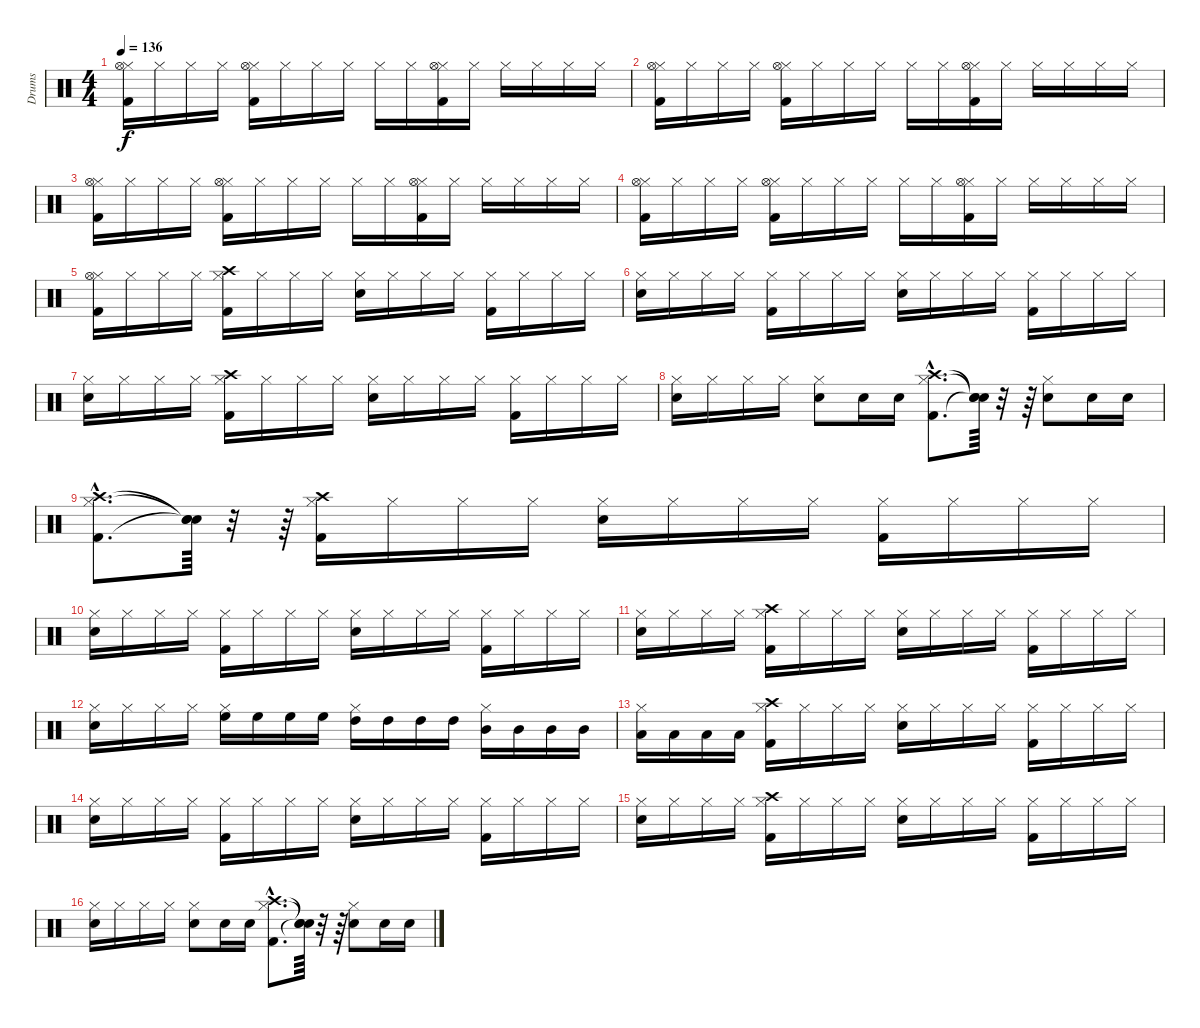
\track ("Drums" "Drums") {instrument percussion}
\staff {score}
\articulation defaults
\ts (4 4)
\tempo 136
\clef neutral
\ks c
("Kick (hit) 2" "Hi-Hat (closed)" "Hi-Hat (open)").16{dy f} "Hi-Hat (closed)".16 "Hi-Hat (closed)".16 "Hi-Hat (closed)".16 ("Kick (hit) 2" "Hi-Hat (closed)" "Hi-Hat (open)").16 "Hi-Hat (closed)".16 "Hi-Hat (closed)".16 "Hi-Hat (closed)".16 "Hi-Hat (closed)".16 "Hi-Hat (closed)".16 ("Kick (hit) 2" "Hi-Hat (closed)" "Hi-Hat (open)").16 "Hi-Hat (closed)".16 "Hi-Hat (closed)".16 "Hi-Hat (closed)".16 "Hi-Hat (closed)".16 "Hi-Hat (closed)".16 |
("Kick (hit) 2" "Hi-Hat (closed)" "Hi-Hat (open)").16 "Hi-Hat (closed)".16 "Hi-Hat (closed)".16 "Hi-Hat (closed)".16 ("Kick (hit) 2" "Hi-Hat (closed)" "Hi-Hat (open)").16 "Hi-Hat (closed)".16 "Hi-Hat (closed)".16 "Hi-Hat (closed)".16 "Hi-Hat (closed)".16 "Hi-Hat (closed)".16 ("Kick (hit) 2" "Hi-Hat (closed)" "Hi-Hat (open)").16 "Hi-Hat (closed)".16 "Hi-Hat (closed)".16 "Hi-Hat (closed)".16 "Hi-Hat (closed)".16 "Hi-Hat (closed)".16 |
("Kick (hit) 2" "Hi-Hat (closed)" "Hi-Hat (open)").16 "Hi-Hat (closed)".16 "Hi-Hat (closed)".16 "Hi-Hat (closed)".16 ("Kick (hit) 2" "Hi-Hat (closed)" "Hi-Hat (open)").16 "Hi-Hat (closed)".16 "Hi-Hat (closed)".16 "Hi-Hat (closed)".16 "Hi-Hat (closed)".16 "Hi-Hat (closed)".16 ("Kick (hit) 2" "Hi-Hat (closed)" "Hi-Hat (open)").16 "Hi-Hat (closed)".16 "Hi-Hat (closed)".16 "Hi-Hat (closed)".16 "Hi-Hat (closed)".16 "Hi-Hat (closed)".16 |
("Kick (hit) 2" "Hi-Hat (closed)" "Hi-Hat (open)").16 "Hi-Hat (closed)".16 "Hi-Hat (closed)".16 "Hi-Hat (closed)".16 ("Kick (hit) 2" "Hi-Hat (closed)" "Hi-Hat (open)").16 "Hi-Hat (closed)".16 "Hi-Hat (closed)".16 "Hi-Hat (closed)".16 "Hi-Hat (closed)".16 "Hi-Hat (closed)".16 ("Kick (hit) 2" "Hi-Hat (closed)" "Hi-Hat (open)").16 "Hi-Hat (closed)".16 "Hi-Hat (closed)".16 "Hi-Hat (closed)".16 "Hi-Hat (closed)".16 "Hi-Hat (closed)".16 |
("Kick (hit) 2" "Hi-Hat (closed)" "Hi-Hat (open)").16 "Hi-Hat (closed)".16 "Hi-Hat (closed)".16 "Hi-Hat (closed)".16 ("Kick (hit) 2" "Hi-Hat (closed)" "Crash high (hit)").16 "Hi-Hat (closed)".16 "Hi-Hat (closed)".16 "Hi-Hat (closed)".16 ("Snare (hit) 2" "Hi-Hat (closed)").16 "Hi-Hat (closed)".16 "Hi-Hat (closed)".16 "Hi-Hat (closed)".16 ("Kick (hit) 2" "Hi-Hat (closed)").16 "Hi-Hat (closed)".16 "Hi-Hat (closed)".16 "Hi-Hat (closed)".16 |
("Snare (hit) 2" "Hi-Hat (closed)").16 "Hi-Hat (closed)".16 "Hi-Hat (closed)".16 "Hi-Hat (closed)".16 ("Kick (hit) 2" "Hi-Hat (closed)").16 "Hi-Hat (closed)".16 "Hi-Hat (closed)".16 "Hi-Hat (closed)".16 ("Snare (hit) 2" "Hi-Hat (closed)").16 "Hi-Hat (closed)".16 "Hi-Hat (closed)".16 "Hi-Hat (closed)".16 ("Kick (hit) 2" "Hi-Hat (closed)").16 "Hi-Hat (closed)".16 "Hi-Hat (closed)".16 "Hi-Hat (closed)".16 |
("Snare (hit) 2" "Hi-Hat (closed)").16 "Hi-Hat (closed)".16 "Hi-Hat (closed)".16 "Hi-Hat (closed)".16 ("Kick (hit) 2" "Hi-Hat (closed)" "Crash high (hit)").16 "Hi-Hat (closed)".16 "Hi-Hat (closed)".16 "Hi-Hat (closed)".16 ("Snare (hit) 2" "Hi-Hat (closed)").16 "Hi-Hat (closed)".16 "Hi-Hat (closed)".16 "Hi-Hat (closed)".16 ("Kick (hit) 2" "Hi-Hat (closed)").16 "Hi-Hat (closed)".16 "Hi-Hat (closed)".16 "Hi-Hat (closed)".16 |
("Snare (hit) 2" "Hi-Hat (closed)").16 "Hi-Hat (closed)".16 "Hi-Hat (closed)".16 "Hi-Hat (closed)".16 ("Snare (hit) 2" "Hi-Hat (closed)").8 "Snare (hit) 2".16 "Snare (hit) 2".16 ("Kick (hit) 2"{hac} "Hi-Hat (closed)"{hac} "Crash high (hit)"{hac}).8{d} ("Snare (hit)"{t} "Snare (hit)"{t} "Snare (hit)"{t}).64 r.32 r.64 ("Snare (hit) 2" "Hi-Hat (closed)").8 "Snare (hit) 2".16 "Snare (hit) 2".16 |
("Kick (hit) 2"{hac} "Hi-Hat (closed)"{hac} "Crash high (hit)"{hac}).8{d} ("Snare (hit)"{t} "Snare (hit)"{t} "Snare (hit)"{t}).64 r.32 r.64 ("Kick (hit) 2" "Hi-Hat (closed)" "Crash high (hit)").16 "Hi-Hat (closed)".16 "Hi-Hat (closed)".16 "Hi-Hat (closed)".16 ("Snare (hit) 2" "Hi-Hat (closed)").16 "Hi-Hat (closed)".16 "Hi-Hat (closed)".16 "Hi-Hat (closed)".16 ("Kick (hit) 2" "Hi-Hat (closed)").16 "Hi-Hat (closed)".16 "Hi-Hat (closed)".16 "Hi-Hat (closed)".16 |
("Snare (hit) 2" "Hi-Hat (closed)").16 "Hi-Hat (closed)".16 "Hi-Hat (closed)".16 "Hi-Hat (closed)".16 ("Kick (hit) 2" "Hi-Hat (closed)").16 "Hi-Hat (closed)".16 "Hi-Hat (closed)".16 "Hi-Hat (closed)".16 ("Snare (hit) 2" "Hi-Hat (closed)").16 "Hi-Hat (closed)".16 "Hi-Hat (closed)".16 "Hi-Hat (closed)".16 ("Kick (hit) 2" "Hi-Hat (closed)").16 "Hi-Hat (closed)".16 "Hi-Hat (closed)".16 "Hi-Hat (closed)".16 |
("Snare (hit) 2" "Hi-Hat (closed)").16 "Hi-Hat (closed)".16 "Hi-Hat (closed)".16 "Hi-Hat (closed)".16 ("Kick (hit) 2" "Hi-Hat (closed)" "Crash high (hit)").16 "Hi-Hat (closed)".16 "Hi-Hat (closed)".16 "Hi-Hat (closed)".16 ("Snare (hit) 2" "Hi-Hat (closed)").16 "Hi-Hat (closed)".16 "Hi-Hat (closed)".16 "Hi-Hat (closed)".16 ("Kick (hit) 2" "Hi-Hat (closed)").16 "Hi-Hat (closed)".16 "Hi-Hat (closed)".16 "Hi-Hat (closed)".16 |
("Snare (hit) 2" "Hi-Hat (closed)").16 "Hi-Hat (closed)".16 "Hi-Hat (closed)".16 "Hi-Hat (closed)".16 ("Hi-Hat (closed)" "High Floor Tom (hit)").16 "High Floor Tom (hit)".16 "High Floor Tom (hit)".16 "High Floor Tom (hit)".16 ("Hi-Hat (closed)" "High Tom (hit)").16 "High Tom (hit)".16 "High Tom (hit)".16 "High Tom (hit)".16 ("Hi-Hat (closed)" "Mid Tom (hit)").16 "Mid Tom (hit)".16 "Mid Tom (hit)".16 "Mid Tom (hit)".16 |
("Hi-Hat (closed)" "Low Tom (hit)").16 "Low Tom (hit)".16 "Low Tom (hit)".16 "Low Tom (hit)".16 ("Kick (hit) 2" "Hi-Hat (closed)" "Crash high (hit)").16 "Hi-Hat (closed)".16 "Hi-Hat (closed)".16 "Hi-Hat (closed)".16 ("Snare (hit) 2" "Hi-Hat (closed)").16 "Hi-Hat (closed)".16 "Hi-Hat (closed)".16 "Hi-Hat (closed)".16 ("Kick (hit) 2" "Hi-Hat (closed)").16 "Hi-Hat (closed)".16 "Hi-Hat (closed)".16 "Hi-Hat (closed)".16 |
("Snare (hit) 2" "Hi-Hat (closed)").16 "Hi-Hat (closed)".16 "Hi-Hat (closed)".16 "Hi-Hat (closed)".16 ("Kick (hit) 2" "Hi-Hat (closed)").16 "Hi-Hat (closed)".16 "Hi-Hat (closed)".16 "Hi-Hat (closed)".16 ("Snare (hit) 2" "Hi-Hat (closed)").16 "Hi-Hat (closed)".16 "Hi-Hat (closed)".16 "Hi-Hat (closed)".16 ("Kick (hit) 2" "Hi-Hat (closed)").16 "Hi-Hat (closed)".16 "Hi-Hat (closed)".16 "Hi-Hat (closed)".16 |
("Snare (hit) 2" "Hi-Hat (closed)").16 "Hi-Hat (closed)".16 "Hi-Hat (closed)".16 "Hi-Hat (closed)".16 ("Kick (hit) 2" "Hi-Hat (closed)" "Crash high (hit)").16 "Hi-Hat (closed)".16 "Hi-Hat (closed)".16 "Hi-Hat (closed)".16 ("Snare (hit) 2" "Hi-Hat (closed)").16 "Hi-Hat (closed)".16 "Hi-Hat (closed)".16 "Hi-Hat (closed)".16 ("Kick (hit) 2" "Hi-Hat (closed)").16 "Hi-Hat (closed)".16 "Hi-Hat (closed)".16 "Hi-Hat (closed)".16 |
("Snare (hit) 2" "Hi-Hat (closed)").16 "Hi-Hat (closed)".16 "Hi-Hat (closed)".16 "Hi-Hat (closed)".16 ("Snare (hit) 2" "Hi-Hat (closed)").8 "Snare (hit) 2".16 "Snare (hit) 2".16 ("Kick (hit) 2"{hac} "Hi-Hat (closed)"{hac} "Crash high (hit)"{hac}).8{d} ("Snare (hit)"{t} "Snare (hit)"{t} "Snare (hit)"{t}).64 r.32 r.64 ("Snare (hit) 2" "Hi-Hat (closed)").8 "Snare (hit) 2".16 "Snare (hit) 2".16
